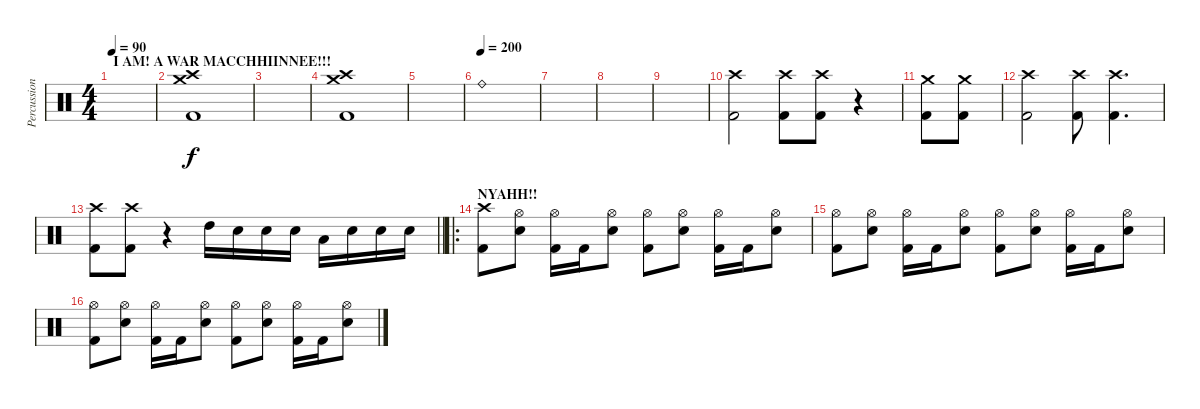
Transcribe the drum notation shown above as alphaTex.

\track ("Percussion" "Percussion") {instrument percussion}
\staff {score}
\articulation defaults
\ts (4 4)
\section ("" "I AM! A WAR MACCHHIINNEE!!!")
\tempo 90
\clef neutral
\ks c
|
("Crash high (hit)" "Crash medium (hit)" "Kick (hit) 2").1 |
|
("Crash medium (hit)" "Crash high (hit)" "Kick (hit) 2").1 |
|
\tempo (200)
"Ride (bell)".1 |
|
|
|
("Crash high (hit)" "Kick (hit) 2").2 ("Crash high (hit)" "Kick (hit) 2").8 ("Crash high (hit)" "Kick (hit) 2").8 r.4 |
("Crash medium (hit)" "Kick (hit) 2").8 ("Crash medium (hit)" "Kick (hit) 2").8 |
("Crash high (hit)" "Kick (hit) 2").2 ("Crash high (hit)" "Kick (hit) 2").8 ("Crash high (hit)" "Kick (hit) 2").4{d} |
\barLineRight lightlight
("Crash high (hit)" "Kick (hit) 2").8 ("Crash high (hit)" "Kick (hit) 2").8 r.4 "High Tom (hit)".16 "Electric Snare (hit)".16 "Electric Snare (hit)".16 "Electric Snare (hit)".16 "Low Tom (hit)".16 "Electric Snare (hit)".16 "Electric Snare (hit)".16 "Electric Snare (hit)".16 |
\ro
\section ("" "NYAHH!!")
("Crash high (hit)" "Kick (hit) 2").8 ("Hi-Hat (open)" "Electric Snare (hit)").8 ("Hi-Hat (open)" "Kick (hit) 2").16 "Kick (hit) 2".16 ("Hi-Hat (open)" "Electric Snare (hit)").8 ("Hi-Hat (open)" "Kick (hit) 2").8 ("Hi-Hat (open)" "Electric Snare (hit)").8 ("Hi-Hat (open)" "Kick (hit) 2").16 "Kick (hit) 2".16 ("Hi-Hat (open)" "Electric Snare (hit)").8 |
("Hi-Hat (open)" "Kick (hit) 2").8 ("Hi-Hat (open)" "Electric Snare (hit)").8 ("Hi-Hat (open)" "Kick (hit) 2").16 "Kick (hit) 2".16 ("Hi-Hat (open)" "Electric Snare (hit)").8 ("Hi-Hat (open)" "Kick (hit) 2").8 ("Hi-Hat (open)" "Electric Snare (hit)").8 ("Hi-Hat (open)" "Kick (hit) 2").16 "Kick (hit) 2".16 ("Hi-Hat (open)" "Electric Snare (hit)").8 |
("Hi-Hat (open)" "Kick (hit) 2").8 ("Hi-Hat (open)" "Electric Snare (hit)").8 ("Hi-Hat (open)" "Kick (hit) 2").16 "Kick (hit) 2".16 ("Hi-Hat (open)" "Electric Snare (hit)").8 ("Hi-Hat (open)" "Kick (hit) 2").8 ("Hi-Hat (open)" "Electric Snare (hit)").8 ("Hi-Hat (open)" "Kick (hit) 2").16 "Kick (hit) 2".16 ("Hi-Hat (open)" "Electric Snare (hit)").8
